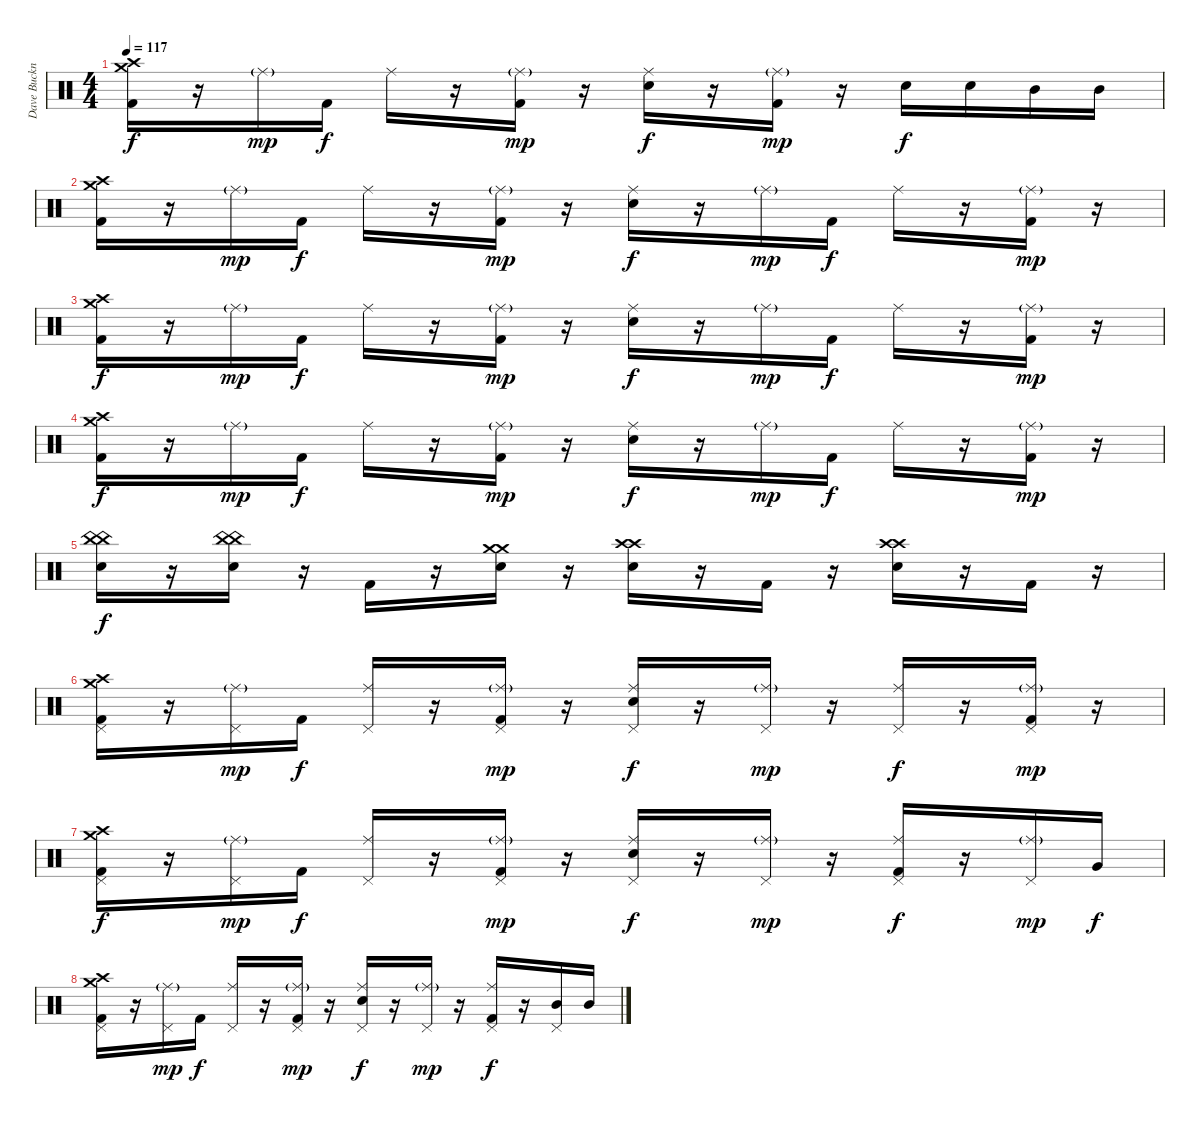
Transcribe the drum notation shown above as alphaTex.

\track ("Dave Buckner RULZ!!! (Drums)" "Dave Buckn") {instrument percussion}
\staff {score}
\articulation defaults
\ts (4 4)
\tempo 117
\clef neutral
\ks c
("Crash high (hit)" "Crash medium (hit)" "Kick (hit) 2").16{dy f} r.16 "Ride (middle)"{g}.16{dy mp} "Kick (hit) 2".16{dy f} "Ride (middle)".16 r.16 ("Ride (middle)"{g} "Kick (hit) 2").16{dy mp} r.16 ("Ride (middle)" "Electric Snare (hit)").16{dy f} r.16 ("Ride (middle)"{g} "Kick (hit) 2").16{dy mp} r.16 "Electric Snare (hit)".16{dy f} "Electric Snare (hit)".16 "Mid Tom (hit)".16 "Mid Tom (hit)".16 |
("Crash high (hit)" "Crash medium (hit)" "Kick (hit) 2").16 r.16 "Ride (middle)"{g}.16{dy mp} "Kick (hit) 2".16{dy f} "Ride (middle)".16 r.16 ("Ride (middle)"{g} "Kick (hit) 2").16{dy mp} r.16 ("Ride (middle)" "Electric Snare (hit)").16{dy f} r.16 "Ride (middle)"{g}.16{dy mp} "Kick (hit) 2".16{dy f} "Ride (middle)".16 r.16 ("Ride (middle)"{g} "Kick (hit) 2").16{dy mp} r.16 |
("Crash high (hit)" "Crash medium (hit)" "Kick (hit) 2").16{dy f} r.16 "Ride (middle)"{g}.16{dy mp} "Kick (hit) 2".16{dy f} "Ride (middle)".16 r.16 ("Ride (middle)"{g} "Kick (hit) 2").16{dy mp} r.16 ("Ride (middle)" "Electric Snare (hit)").16{dy f} r.16 "Ride (middle)"{g}.16{dy mp} "Kick (hit) 2".16{dy f} "Ride (middle)".16 r.16 ("Ride (middle)"{g} "Kick (hit) 2").16{dy mp} r.16 |
("Crash high (hit)" "Crash medium (hit)" "Kick (hit) 2").16{dy f} r.16 "Ride (middle)"{g}.16{dy mp} "Kick (hit) 2".16{dy f} "Ride (middle)".16 r.16 ("Ride (middle)"{g} "Kick (hit) 2").16{dy mp} r.16 ("Ride (middle)" "Electric Snare (hit)").16{dy f} r.16 "Ride (middle)"{g}.16{dy mp} "Kick (hit) 2".16{dy f} "Ride (middle)".16 r.16 ("Ride (middle)"{g} "Kick (hit) 2").16{dy mp} r.16 |
("China (hit)" "China (hit)" "Electric Snare (hit)").16{dy f} r.16 ("China (hit)" "China (hit)" "Electric Snare (hit)").16 r.16 "Kick (hit) 2".16 r.16 ("Crash medium (hit)" "Crash medium (hit)" "Electric Snare (hit)").16 r.16 ("Crash high (hit)" "Crash high (hit)" "Electric Snare (hit)").16 r.16 "Kick (hit) 2".16 r.16 ("Crash high (hit)" "Crash high (hit)" "Electric Snare (hit)").16 r.16 "Kick (hit) 2".16 r.16 |
("Crash high (hit)" "Crash medium (hit)" "Pedal Hi-Hat (hit)" "Kick (hit) 2").16 r.16 ("Ride (middle)"{g} "Pedal Hi-Hat (hit)").16{dy mp} "Kick (hit) 2".16{dy f} ("Ride (middle)" "Pedal Hi-Hat (hit)").16 r.16 ("Ride (middle)"{g} "Pedal Hi-Hat (hit)" "Kick (hit) 2").16{dy mp} r.16 ("Ride (middle)" "Electric Snare (hit)" "Pedal Hi-Hat (hit)").16{dy f} r.16 ("Ride (middle)"{g} "Pedal Hi-Hat (hit)").16{dy mp} r.16 ("Ride (middle)" "Pedal Hi-Hat (hit)").16{dy f} r.16 ("Ride (middle)"{g} "Pedal Hi-Hat (hit)" "Kick (hit) 2").16{dy mp} r.16 |
("Crash high (hit)" "Crash medium (hit)" "Pedal Hi-Hat (hit)" "Kick (hit) 2").16{dy f} r.16 ("Ride (middle)"{g} "Pedal Hi-Hat (hit)").16{dy mp} "Kick (hit) 2".16{dy f} ("Ride (middle)" "Pedal Hi-Hat (hit)").16 r.16 ("Ride (middle)"{g} "Pedal Hi-Hat (hit)" "Kick (hit) 2").16{dy mp} r.16 ("Ride (middle)" "Electric Snare (hit)" "Pedal Hi-Hat (hit)").16{dy f} r.16 ("Ride (middle)"{g} "Pedal Hi-Hat (hit)").16{dy mp} r.16 ("Ride (middle)" "Pedal Hi-Hat (hit)" "Kick (hit) 2").16{dy f} r.16 ("Ride (middle)"{g} "Pedal Hi-Hat (hit)").16{dy mp} "Very Low Tom (hit)".16{dy f} |
("Crash high (hit)" "Crash medium (hit)" "Pedal Hi-Hat (hit)" "Kick (hit) 2").16 r.16 ("Ride (middle)"{g} "Pedal Hi-Hat (hit)").16{dy mp} "Kick (hit) 2".16{dy f} ("Ride (middle)" "Pedal Hi-Hat (hit)").16 r.16 ("Ride (middle)"{g} "Pedal Hi-Hat (hit)" "Kick (hit) 2").16{dy mp} r.16 ("Ride (middle)" "Electric Snare (hit)" "Pedal Hi-Hat (hit)").16{dy f} r.16 ("Ride (middle)"{g} "Pedal Hi-Hat (hit)").16{dy mp} r.16 ("Ride (middle)" "Pedal Hi-Hat (hit)" "Kick (hit) 2").16{dy f} r.16 ("Mid Tom (hit)" "Pedal Hi-Hat (hit)").16 "Mid Tom (hit)".16
